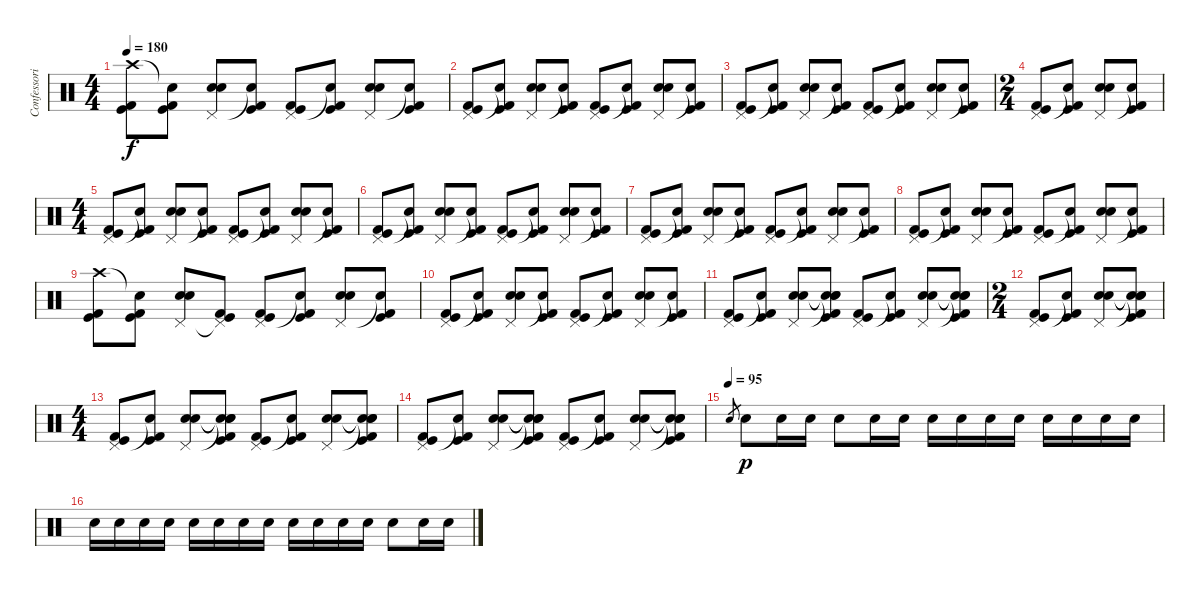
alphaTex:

\track ("Confessori" "Confessori") {instrument percussion}
\staff {score}
\articulation defaults
\ts (4 4)
\tempo 180
\clef neutral
\ks c
("Crash high (hit)" "Kick (hit)" "Kick (hit) 2").8{dy f} ("Snare (hit)"{t} "Kick (hit)" "Kick (hit) 2").8 ("Pedal Hi-Hat (hit)" "Electric Snare (hit)" "Snare (hit) 2").8 ("Snare (hit)"{t} "Kick (hit)" "Kick (hit) 2").8 ("Pedal Hi-Hat (hit)" "Kick (hit)" "Kick (hit) 2").8 ("Snare (hit)"{t} "Kick (hit)" "Kick (hit) 2").8 ("Pedal Hi-Hat (hit)" "Electric Snare (hit)" "Snare (hit) 2").8 ("Snare (hit)"{t} "Kick (hit)" "Kick (hit) 2").8 |
("Pedal Hi-Hat (hit)" "Kick (hit)" "Kick (hit) 2").8 ("Snare (hit)"{t} "Kick (hit)" "Kick (hit) 2").8 ("Pedal Hi-Hat (hit)" "Electric Snare (hit)" "Snare (hit) 2").8 ("Snare (hit)"{t} "Kick (hit)" "Kick (hit) 2").8 ("Pedal Hi-Hat (hit)" "Kick (hit)" "Kick (hit) 2").8 ("Snare (hit)"{t} "Kick (hit)" "Kick (hit) 2").8 ("Pedal Hi-Hat (hit)" "Electric Snare (hit)" "Snare (hit) 2").8 ("Snare (hit)"{t} "Kick (hit)" "Kick (hit) 2").8 |
("Pedal Hi-Hat (hit)" "Kick (hit)" "Kick (hit) 2").8 ("Snare (hit)"{t} "Kick (hit)" "Kick (hit) 2").8 ("Pedal Hi-Hat (hit)" "Electric Snare (hit)" "Snare (hit) 2").8 ("Snare (hit)"{t} "Kick (hit)" "Kick (hit) 2").8 ("Pedal Hi-Hat (hit)" "Kick (hit)" "Kick (hit) 2").8 ("Snare (hit)"{t} "Kick (hit)" "Kick (hit) 2").8 ("Pedal Hi-Hat (hit)" "Electric Snare (hit)" "Snare (hit) 2").8 ("Snare (hit)"{t} "Kick (hit)" "Kick (hit) 2").8 |
\ts (2 4)
("Pedal Hi-Hat (hit)" "Kick (hit)" "Kick (hit) 2").8 ("Snare (hit)"{t} "Kick (hit)" "Kick (hit) 2").8 ("Pedal Hi-Hat (hit)" "Electric Snare (hit)" "Snare (hit) 2").8 ("Snare (hit)"{t} "Kick (hit)" "Kick (hit) 2").8 |
\ts (4 4)
("Pedal Hi-Hat (hit)" "Kick (hit)" "Kick (hit) 2").8 ("Snare (hit)"{t} "Kick (hit)" "Kick (hit) 2").8 ("Pedal Hi-Hat (hit)" "Electric Snare (hit)" "Snare (hit) 2").8 ("Snare (hit)"{t} "Kick (hit)" "Kick (hit) 2").8 ("Pedal Hi-Hat (hit)" "Kick (hit)" "Kick (hit) 2").8 ("Snare (hit)"{t} "Kick (hit)" "Kick (hit) 2").8 ("Pedal Hi-Hat (hit)" "Electric Snare (hit)" "Snare (hit) 2").8 ("Snare (hit)"{t} "Kick (hit)" "Kick (hit) 2").8 |
("Pedal Hi-Hat (hit)" "Kick (hit)" "Kick (hit) 2").8 ("Snare (hit)"{t} "Kick (hit)" "Kick (hit) 2").8 ("Pedal Hi-Hat (hit)" "Electric Snare (hit)" "Snare (hit) 2").8 ("Snare (hit)"{t} "Kick (hit)" "Kick (hit) 2").8 ("Pedal Hi-Hat (hit)" "Kick (hit)" "Kick (hit) 2").8 ("Snare (hit)"{t} "Kick (hit)" "Kick (hit) 2").8 ("Pedal Hi-Hat (hit)" "Electric Snare (hit)" "Snare (hit) 2").8 ("Snare (hit)"{t} "Kick (hit)" "Kick (hit) 2").8 |
("Pedal Hi-Hat (hit)" "Kick (hit)" "Kick (hit) 2").8 ("Snare (hit)"{t} "Kick (hit)" "Kick (hit) 2").8 ("Pedal Hi-Hat (hit)" "Electric Snare (hit)" "Snare (hit) 2").8 ("Snare (hit)"{t} "Kick (hit)" "Kick (hit) 2").8 ("Pedal Hi-Hat (hit)" "Kick (hit)" "Kick (hit) 2").8 ("Snare (hit)"{t} "Kick (hit)" "Kick (hit) 2").8 ("Pedal Hi-Hat (hit)" "Electric Snare (hit)" "Snare (hit) 2").8 ("Snare (hit)"{t} "Kick (hit)" "Kick (hit) 2").8 |
("Pedal Hi-Hat (hit)" "Kick (hit)" "Kick (hit) 2").8 ("Snare (hit)"{t} "Kick (hit)" "Kick (hit) 2").8 ("Pedal Hi-Hat (hit)" "Electric Snare (hit)" "Snare (hit) 2").8 ("Snare (hit)"{t} "Kick (hit)" "Kick (hit) 2").8 ("Pedal Hi-Hat (hit)" "Kick (hit)" "Kick (hit) 2").8 ("Snare (hit)"{t} "Kick (hit)" "Kick (hit) 2").8 ("Pedal Hi-Hat (hit)" "Electric Snare (hit)" "Snare (hit) 2").8 ("Snare (hit)"{t} "Kick (hit)" "Kick (hit) 2").8 |
("Crash high (hit)" "Kick (hit)" "Kick (hit) 2").8 ("Snare (hit)"{t} "Kick (hit)" "Kick (hit) 2").8 ("Pedal Hi-Hat (hit)" "Electric Snare (hit)" "Snare (hit) 2").8 ("Pedal Hi-Hat (hit)"{t} "Kick (hit)" "Kick (hit) 2").8 ("Pedal Hi-Hat (hit)" "Kick (hit)" "Kick (hit) 2").8 ("Snare (hit)"{t} "Kick (hit)" "Kick (hit) 2").8 ("Pedal Hi-Hat (hit)" "Electric Snare (hit)" "Snare (hit) 2").8 ("Snare (hit)"{t} "Kick (hit)" "Kick (hit) 2").8 |
("Pedal Hi-Hat (hit)" "Kick (hit)" "Kick (hit) 2").8 ("Snare (hit)"{t} "Kick (hit)" "Kick (hit) 2").8 ("Pedal Hi-Hat (hit)" "Electric Snare (hit)" "Snare (hit) 2").8 ("Snare (hit)"{t} "Kick (hit)" "Kick (hit) 2").8 ("Pedal Hi-Hat (hit)" "Kick (hit)" "Kick (hit) 2").8 ("Snare (hit)"{t} "Kick (hit)" "Kick (hit) 2").8 ("Pedal Hi-Hat (hit)" "Electric Snare (hit)" "Snare (hit) 2").8 ("Snare (hit)"{t} "Kick (hit)" "Kick (hit) 2").8 |
("Pedal Hi-Hat (hit)" "Kick (hit)" "Kick (hit) 2").8 ("Snare (hit)"{t} "Kick (hit)" "Kick (hit) 2").8 ("Pedal Hi-Hat (hit)" "Electric Snare (hit)" "Snare (hit) 2").8 ("Snare (hit)"{t} "Snare (hit)"{t} "Snare (hit)"{t} "Kick (hit)" "Kick (hit) 2").8 ("Pedal Hi-Hat (hit)" "Kick (hit)" "Kick (hit) 2").8 ("Snare (hit)"{t} "Kick (hit)" "Kick (hit) 2").8 ("Pedal Hi-Hat (hit)" "Electric Snare (hit)" "Snare (hit) 2").8 ("Snare (hit)"{t} "Snare (hit)"{t} "Snare (hit)"{t} "Kick (hit)" "Kick (hit) 2").8 |
\ts (2 4)
("Pedal Hi-Hat (hit)" "Kick (hit)" "Kick (hit) 2").8 ("Snare (hit)"{t} "Kick (hit)" "Kick (hit) 2").8 ("Pedal Hi-Hat (hit)" "Electric Snare (hit)" "Snare (hit) 2").8 ("Snare (hit)"{t} "Snare (hit)"{t} "Snare (hit)"{t} "Kick (hit)" "Kick (hit) 2").8 |
\ts (4 4)
("Pedal Hi-Hat (hit)" "Kick (hit)" "Kick (hit) 2").8 ("Snare (hit)"{t} "Kick (hit)" "Kick (hit) 2").8 ("Pedal Hi-Hat (hit)" "Electric Snare (hit)" "Snare (hit) 2").8 ("Snare (hit)"{t} "Snare (hit)"{t} "Snare (hit)"{t} "Kick (hit)" "Kick (hit) 2").8 ("Pedal Hi-Hat (hit)" "Kick (hit)" "Kick (hit) 2").8 ("Snare (hit)"{t} "Kick (hit)" "Kick (hit) 2").8 ("Pedal Hi-Hat (hit)" "Electric Snare (hit)" "Snare (hit) 2").8 ("Snare (hit)"{t} "Snare (hit)"{t} "Snare (hit)"{t} "Kick (hit)" "Kick (hit) 2").8 |
("Pedal Hi-Hat (hit)" "Kick (hit)" "Kick (hit) 2").8 ("Snare (hit)"{t} "Kick (hit)" "Kick (hit) 2").8 ("Pedal Hi-Hat (hit)" "Electric Snare (hit)" "Snare (hit) 2").8 ("Snare (hit)"{t} "Snare (hit)"{t} "Snare (hit)"{t} "Kick (hit)" "Kick (hit) 2").8 ("Pedal Hi-Hat (hit)" "Kick (hit)" "Kick (hit) 2").8 ("Snare (hit)"{t} "Kick (hit)" "Kick (hit) 2").8 ("Pedal Hi-Hat (hit)" "Electric Snare (hit)" "Snare (hit) 2").8 ("Snare (hit)"{t} "Snare (hit)"{t} "Snare (hit)"{t} "Kick (hit)" "Kick (hit) 2").8 |
\tempo (95)
"Electric Snare (hit)".8{gr} "Electric Snare (hit)".8{dy p} "Electric Snare (hit)".16 "Electric Snare (hit)".16 "Electric Snare (hit)".8 "Electric Snare (hit)".16 "Electric Snare (hit)".16 "Electric Snare (hit)".16 "Electric Snare (hit)".16 "Electric Snare (hit)".16 "Electric Snare (hit)".16 "Electric Snare (hit)".16 "Electric Snare (hit)".16 "Electric Snare (hit)".16 "Electric Snare (hit)".16 |
"Electric Snare (hit)".16 "Electric Snare (hit)".16 "Electric Snare (hit)".16 "Electric Snare (hit)".16 "Electric Snare (hit)".16 "Electric Snare (hit)".16 "Electric Snare (hit)".16 "Electric Snare (hit)".16 "Electric Snare (hit)".16 "Electric Snare (hit)".16 "Electric Snare (hit)".16 "Electric Snare (hit)".16 "Electric Snare (hit)".8 "Electric Snare (hit)".16 "Electric Snare (hit)".16
